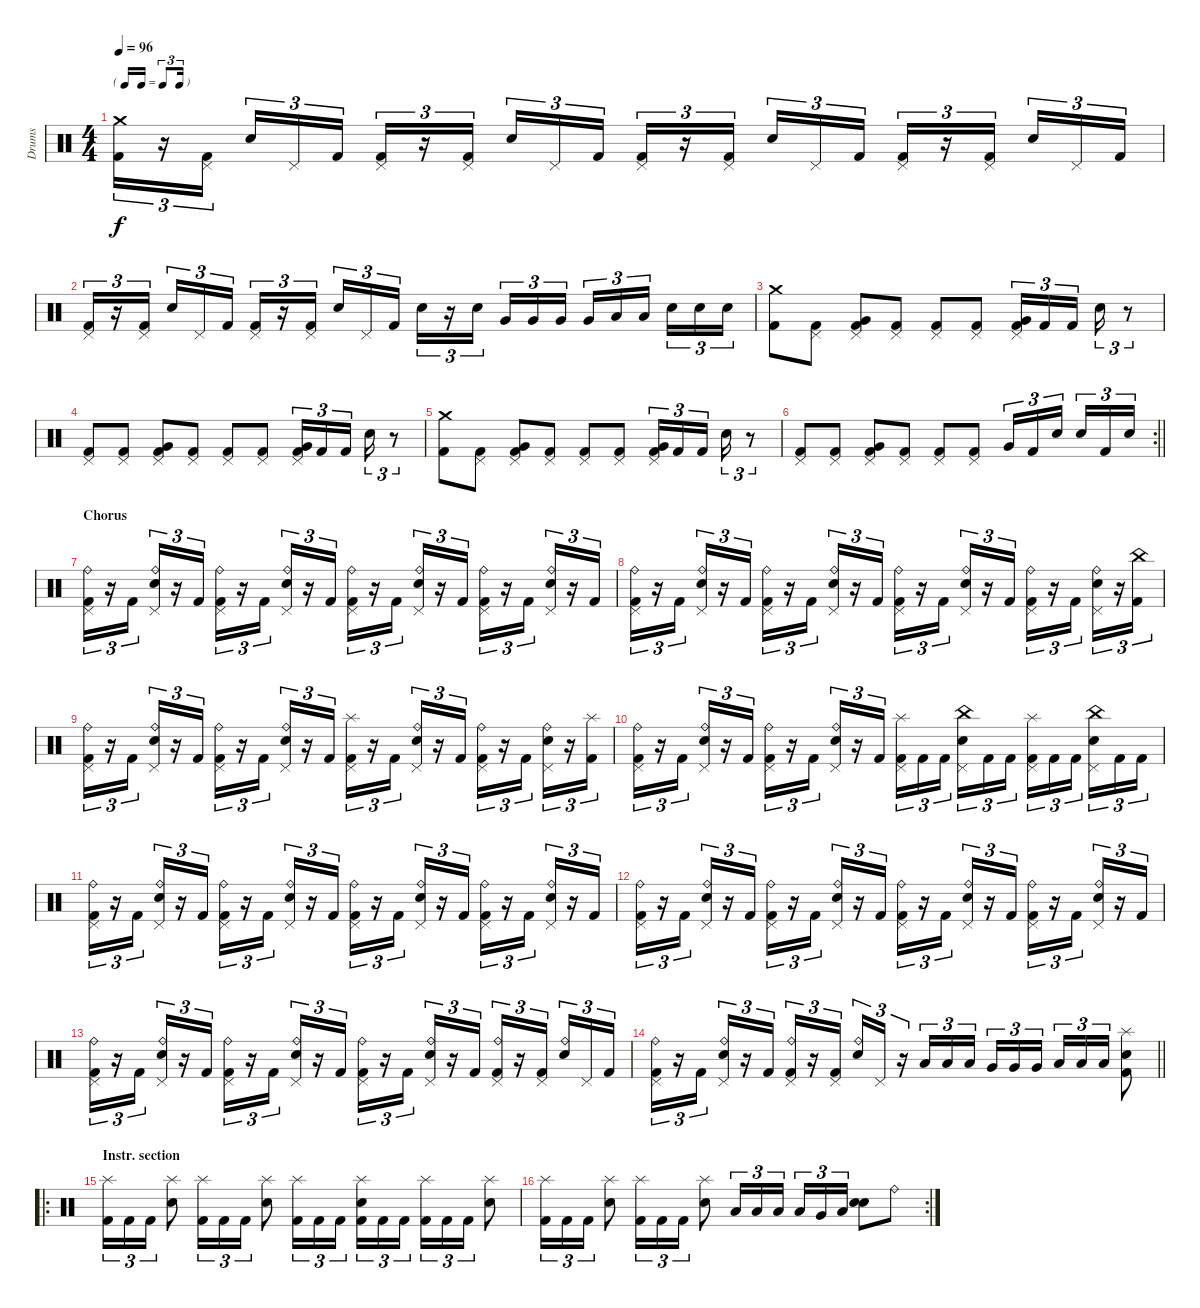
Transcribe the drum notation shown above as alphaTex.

\track ("Drums" "Drums") {instrument percussion}
\staff {score}
\articulation defaults
\ts (4 4)
\tf triplet16th
\tempo 96
\clef neutral
\ks c
("Crash medium (hit)" "Kick (hit) 2").16{tu (3 2) dy f} r.16{tu (3 2)} ("Pedal Hi-Hat (hit)" "Kick (hit) 2").16{tu (3 2) beam splitsecondary} "Snare (hit) 2".16{tu (3 2)} "Pedal Hi-Hat (hit)".16{tu (3 2)} "Kick (hit) 2".16{tu (3 2)} ("Pedal Hi-Hat (hit)" "Kick (hit) 2").16{tu (3 2)} r.16{tu (3 2)} ("Pedal Hi-Hat (hit)" "Kick (hit) 2").16{tu (3 2) beam splitsecondary} "Snare (hit) 2".16{tu (3 2)} "Pedal Hi-Hat (hit)".16{tu (3 2)} "Kick (hit) 2".16{tu (3 2)} ("Pedal Hi-Hat (hit)" "Kick (hit) 2").16{tu (3 2)} r.16{tu (3 2)} ("Pedal Hi-Hat (hit)" "Kick (hit) 2").16{tu (3 2) beam splitsecondary} "Snare (hit) 2".16{tu (3 2)} "Pedal Hi-Hat (hit)".16{tu (3 2)} "Kick (hit) 2".16{tu (3 2)} ("Pedal Hi-Hat (hit)" "Kick (hit) 2").16{tu (3 2)} r.16{tu (3 2)} ("Pedal Hi-Hat (hit)" "Kick (hit) 2").16{tu (3 2) beam splitsecondary} "Snare (hit) 2".16{tu (3 2)} "Pedal Hi-Hat (hit)".16{tu (3 2)} "Kick (hit) 2".16{tu (3 2)} |
("Pedal Hi-Hat (hit)" "Kick (hit) 2").16{tu (3 2)} r.16{tu (3 2)} ("Pedal Hi-Hat (hit)" "Kick (hit) 2").16{tu (3 2) beam splitsecondary} "Snare (hit) 2".16{tu (3 2)} "Pedal Hi-Hat (hit)".16{tu (3 2)} "Kick (hit) 2".16{tu (3 2)} ("Pedal Hi-Hat (hit)" "Kick (hit) 2").16{tu (3 2)} r.16{tu (3 2)} ("Pedal Hi-Hat (hit)" "Kick (hit) 2").16{tu (3 2) beam splitsecondary} "Snare (hit) 2".16{tu (3 2)} "Pedal Hi-Hat (hit)".16{tu (3 2)} "Kick (hit) 2".16{tu (3 2)} "Snare (hit) 2".16{tu (3 2)} r.16{tu (3 2)} "Snare (hit) 2".16{tu (3 2) beam splitsecondary} "Very Low Tom (hit)".16{tu (3 2)} "Very Low Tom (hit)".16{tu (3 2)} "Very Low Tom (hit)".16{tu (3 2)} "Very Low Tom (hit)".16{tu (3 2)} "Low Floor Tom (hit)".16{tu (3 2)} "Low Floor Tom (hit)".16{tu (3 2) beam splitsecondary} "Snare (hit) 2".16{tu (3 2)} "Snare (hit) 2".16{tu (3 2)} "Snare (hit) 2".16{tu (3 2)} |
("Crash medium (hit)" "Kick (hit) 2").8 ("Pedal Hi-Hat (hit)" "Kick (hit) 2").8 ("Pedal Hi-Hat (hit)" "Very Low Tom (hit)" "Kick (hit) 2").8 ("Pedal Hi-Hat (hit)" "Kick (hit) 2").8 ("Pedal Hi-Hat (hit)" "Kick (hit) 2").8 ("Pedal Hi-Hat (hit)" "Kick (hit) 2").8 ("Pedal Hi-Hat (hit)" "Very Low Tom (hit)" "Kick (hit) 2").16{tu (3 2)} "Kick (hit) 2".16{tu (3 2)} "Kick (hit) 2".16{tu (3 2) beam splitsecondary} "Snare (hit) 2".16{tu (3 2)} r.8{tu (3 2)} |
("Pedal Hi-Hat (hit)" "Kick (hit) 2").8 ("Pedal Hi-Hat (hit)" "Kick (hit) 2").8 ("Pedal Hi-Hat (hit)" "Very Low Tom (hit)" "Kick (hit) 2").8 ("Pedal Hi-Hat (hit)" "Kick (hit) 2").8 ("Pedal Hi-Hat (hit)" "Kick (hit) 2").8 ("Pedal Hi-Hat (hit)" "Kick (hit) 2").8 ("Pedal Hi-Hat (hit)" "Very Low Tom (hit)" "Kick (hit) 2").16{tu (3 2)} "Kick (hit) 2".16{tu (3 2)} "Kick (hit) 2".16{tu (3 2) beam splitsecondary} "Snare (hit) 2".16{tu (3 2)} r.8{tu (3 2)} |
("Crash medium (hit)" "Kick (hit) 2").8 ("Pedal Hi-Hat (hit)" "Kick (hit) 2").8 ("Pedal Hi-Hat (hit)" "Very Low Tom (hit)" "Kick (hit) 2").8 ("Pedal Hi-Hat (hit)" "Kick (hit) 2").8 ("Pedal Hi-Hat (hit)" "Kick (hit) 2").8 ("Pedal Hi-Hat (hit)" "Kick (hit) 2").8 ("Pedal Hi-Hat (hit)" "Very Low Tom (hit)" "Kick (hit) 2").16{tu (3 2)} "Kick (hit) 2".16{tu (3 2)} "Kick (hit) 2".16{tu (3 2) beam splitsecondary} "Snare (hit) 2".16{tu (3 2)} r.8{tu (3 2)} |
\rc 2
\barLineRight lightlight
("Pedal Hi-Hat (hit)" "Kick (hit) 2").8 ("Pedal Hi-Hat (hit)" "Kick (hit) 2").8 ("Pedal Hi-Hat (hit)" "Very Low Tom (hit)" "Kick (hit) 2").8 ("Pedal Hi-Hat (hit)" "Kick (hit) 2").8 ("Pedal Hi-Hat (hit)" "Kick (hit) 2").8 ("Pedal Hi-Hat (hit)" "Kick (hit) 2").8 "Very Low Tom (hit)".16{tu (3 2)} "Kick (hit) 2".16{tu (3 2)} "Snare (hit) 2".16{tu (3 2) beam splitsecondary} "Snare (hit) 2".16{tu (3 2)} "Kick (hit) 2".16{tu (3 2)} "Snare (hit) 2".16{tu (3 2)} |
\section ("" "Chorus")
("Ride (bell)" "Pedal Hi-Hat (hit)" "Kick (hit) 2").16{tu (3 2)} r.16{tu (3 2)} "Kick (hit) 2".16{tu (3 2)} ("Ride (bell)" "Pedal Hi-Hat (hit)" "Snare (hit) 2").16{tu (3 2)} r.16{tu (3 2)} "Kick (hit) 2".16{tu (3 2)} ("Ride (bell)" "Pedal Hi-Hat (hit)" "Kick (hit) 2").16{tu (3 2)} r.16{tu (3 2)} "Kick (hit) 2".16{tu (3 2)} ("Ride (bell)" "Pedal Hi-Hat (hit)" "Snare (hit) 2").16{tu (3 2)} r.16{tu (3 2)} "Kick (hit) 2".16{tu (3 2)} ("Ride (bell)" "Pedal Hi-Hat (hit)" "Kick (hit) 2").16{tu (3 2)} r.16{tu (3 2)} "Kick (hit) 2".16{tu (3 2)} ("Ride (bell)" "Pedal Hi-Hat (hit)" "Snare (hit) 2").16{tu (3 2)} r.16{tu (3 2)} "Kick (hit) 2".16{tu (3 2)} ("Ride (bell)" "Pedal Hi-Hat (hit)" "Kick (hit) 2").16{tu (3 2)} r.16{tu (3 2)} "Kick (hit) 2".16{tu (3 2)} ("Ride (bell)" "Pedal Hi-Hat (hit)" "Snare (hit) 2").16{tu (3 2)} r.16{tu (3 2)} "Kick (hit) 2".16{tu (3 2)} |
("Ride (bell)" "Pedal Hi-Hat (hit)" "Kick (hit) 2").16{tu (3 2)} r.16{tu (3 2)} "Kick (hit) 2".16{tu (3 2)} ("Ride (bell)" "Pedal Hi-Hat (hit)" "Snare (hit) 2").16{tu (3 2)} r.16{tu (3 2)} "Kick (hit) 2".16{tu (3 2)} ("Ride (bell)" "Pedal Hi-Hat (hit)" "Kick (hit) 2").16{tu (3 2)} r.16{tu (3 2)} "Kick (hit) 2".16{tu (3 2)} ("Ride (bell)" "Pedal Hi-Hat (hit)" "Snare (hit) 2").16{tu (3 2)} r.16{tu (3 2)} "Kick (hit) 2".16{tu (3 2)} ("Ride (bell)" "Pedal Hi-Hat (hit)" "Kick (hit) 2").16{tu (3 2)} r.16{tu (3 2)} "Kick (hit) 2".16{tu (3 2)} ("Ride (bell)" "Pedal Hi-Hat (hit)" "Snare (hit) 2").16{tu (3 2)} r.16{tu (3 2)} "Kick (hit) 2".16{tu (3 2)} ("Ride (bell)" "Pedal Hi-Hat (hit)" "Kick (hit) 2").16{tu (3 2)} r.16{tu (3 2)} "Kick (hit) 2".16{tu (3 2)} ("Ride (bell)" "Pedal Hi-Hat (hit)" "Snare (hit) 2").16{tu (3 2)} r.16{tu (3 2)} ("China (hit)" "Kick (hit) 2").16{tu (3 2)} |
("Ride (bell)" "Pedal Hi-Hat (hit)" "Kick (hit) 2").16{tu (3 2)} r.16{tu (3 2)} "Kick (hit) 2".16{tu (3 2)} ("Ride (bell)" "Pedal Hi-Hat (hit)" "Snare (hit) 2").16{tu (3 2)} r.16{tu (3 2)} "Kick (hit) 2".16{tu (3 2)} ("Ride (bell)" "Pedal Hi-Hat (hit)" "Kick (hit) 2").16{tu (3 2)} r.16{tu (3 2)} "Kick (hit) 2".16{tu (3 2)} ("Ride (bell)" "Pedal Hi-Hat (hit)" "Snare (hit) 2").16{tu (3 2)} r.16{tu (3 2)} "Kick (hit) 2".16{tu (3 2)} ("Splash (hit)" "Pedal Hi-Hat (hit)" "Kick (hit) 2").16{tu (3 2)} r.16{tu (3 2)} "Kick (hit) 2".16{tu (3 2)} ("Ride (bell)" "Pedal Hi-Hat (hit)" "Snare (hit) 2").16{tu (3 2)} r.16{tu (3 2)} "Kick (hit) 2".16{tu (3 2)} ("Ride (bell)" "Pedal Hi-Hat (hit)" "Kick (hit) 2").16{tu (3 2)} r.16{tu (3 2)} "Kick (hit) 2".16{tu (3 2)} ("Ride (bell)" "Pedal Hi-Hat (hit)" "Snare (hit) 2").16{tu (3 2)} r.16{tu (3 2)} ("Splash (hit)" "Kick (hit) 2").16{tu (3 2)} |
("Ride (bell)" "Pedal Hi-Hat (hit)" "Kick (hit) 2").16{tu (3 2)} r.16{tu (3 2)} "Kick (hit) 2".16{tu (3 2)} ("Ride (bell)" "Pedal Hi-Hat (hit)" "Snare (hit) 2").16{tu (3 2)} r.16{tu (3 2)} "Kick (hit) 2".16{tu (3 2)} ("Ride (bell)" "Pedal Hi-Hat (hit)" "Kick (hit) 2").16{tu (3 2)} r.16{tu (3 2)} "Kick (hit) 2".16{tu (3 2)} ("Ride (bell)" "Pedal Hi-Hat (hit)" "Snare (hit) 2").16{tu (3 2)} r.16{tu (3 2)} "Kick (hit) 2".16{tu (3 2)} ("Splash (hit)" "Pedal Hi-Hat (hit)" "Kick (hit) 2").16{tu (3 2)} "Kick (hit) 2".16{tu (3 2)} "Kick (hit) 2".16{tu (3 2) beam splitsecondary} ("China (hit)" "Pedal Hi-Hat (hit)" "Snare (hit) 2").16{tu (3 2)} "Kick (hit) 2".16{tu (3 2)} "Kick (hit) 2".16{tu (3 2)} ("Splash (hit)" "Pedal Hi-Hat (hit)" "Kick (hit) 2").16{tu (3 2)} "Kick (hit) 2".16{tu (3 2)} "Kick (hit) 2".16{tu (3 2) beam splitsecondary} ("China (hit)" "Pedal Hi-Hat (hit)" "Snare (hit) 2").16{tu (3 2)} "Kick (hit) 2".16{tu (3 2)} "Kick (hit) 2".16{tu (3 2)} |
("Ride (bell)" "Pedal Hi-Hat (hit)" "Kick (hit) 2").16{tu (3 2)} r.16{tu (3 2)} "Kick (hit) 2".16{tu (3 2)} ("Ride (bell)" "Pedal Hi-Hat (hit)" "Snare (hit) 2").16{tu (3 2)} r.16{tu (3 2)} "Kick (hit) 2".16{tu (3 2)} ("Ride (bell)" "Pedal Hi-Hat (hit)" "Kick (hit) 2").16{tu (3 2)} r.16{tu (3 2)} "Kick (hit) 2".16{tu (3 2)} ("Ride (bell)" "Pedal Hi-Hat (hit)" "Snare (hit) 2").16{tu (3 2)} r.16{tu (3 2)} "Kick (hit) 2".16{tu (3 2)} ("Ride (bell)" "Pedal Hi-Hat (hit)" "Kick (hit) 2").16{tu (3 2)} r.16{tu (3 2)} "Kick (hit) 2".16{tu (3 2)} ("Ride (bell)" "Pedal Hi-Hat (hit)" "Snare (hit) 2").16{tu (3 2)} r.16{tu (3 2)} "Kick (hit) 2".16{tu (3 2)} ("Ride (bell)" "Pedal Hi-Hat (hit)" "Kick (hit) 2").16{tu (3 2)} r.16{tu (3 2)} "Kick (hit) 2".16{tu (3 2)} ("Ride (bell)" "Pedal Hi-Hat (hit)" "Snare (hit) 2").16{tu (3 2)} r.16{tu (3 2)} "Kick (hit) 2".16{tu (3 2)} |
("Ride (bell)" "Pedal Hi-Hat (hit)" "Kick (hit) 2").16{tu (3 2)} r.16{tu (3 2)} "Kick (hit) 2".16{tu (3 2)} ("Ride (bell)" "Pedal Hi-Hat (hit)" "Snare (hit) 2").16{tu (3 2)} r.16{tu (3 2)} "Kick (hit) 2".16{tu (3 2)} ("Ride (bell)" "Pedal Hi-Hat (hit)" "Kick (hit) 2").16{tu (3 2)} r.16{tu (3 2)} "Kick (hit) 2".16{tu (3 2)} ("Ride (bell)" "Pedal Hi-Hat (hit)" "Snare (hit) 2").16{tu (3 2)} r.16{tu (3 2)} "Kick (hit) 2".16{tu (3 2)} ("Ride (bell)" "Pedal Hi-Hat (hit)" "Kick (hit) 2").16{tu (3 2)} r.16{tu (3 2)} "Kick (hit) 2".16{tu (3 2)} ("Ride (bell)" "Pedal Hi-Hat (hit)" "Snare (hit) 2").16{tu (3 2)} r.16{tu (3 2)} "Kick (hit) 2".16{tu (3 2)} ("Ride (bell)" "Pedal Hi-Hat (hit)" "Kick (hit) 2").16{tu (3 2)} r.16{tu (3 2)} "Kick (hit) 2".16{tu (3 2)} ("Ride (bell)" "Pedal Hi-Hat (hit)" "Snare (hit) 2").16{tu (3 2)} r.16{tu (3 2)} "Kick (hit) 2".16{tu (3 2)} |
("Ride (bell)" "Pedal Hi-Hat (hit)" "Kick (hit) 2").16{tu (3 2)} r.16{tu (3 2)} "Kick (hit) 2".16{tu (3 2)} ("Ride (bell)" "Pedal Hi-Hat (hit)" "Snare (hit) 2").16{tu (3 2)} r.16{tu (3 2)} "Kick (hit) 2".16{tu (3 2)} ("Ride (bell)" "Pedal Hi-Hat (hit)" "Kick (hit) 2").16{tu (3 2)} r.16{tu (3 2)} "Kick (hit) 2".16{tu (3 2)} ("Ride (bell)" "Pedal Hi-Hat (hit)" "Snare (hit) 2").16{tu (3 2)} r.16{tu (3 2)} "Kick (hit) 2".16{tu (3 2)} ("Ride (bell)" "Pedal Hi-Hat (hit)" "Kick (hit) 2").16{tu (3 2)} r.16{tu (3 2)} "Kick (hit) 2".16{tu (3 2)} ("Ride (bell)" "Pedal Hi-Hat (hit)" "Snare (hit) 2").16{tu (3 2)} r.16{tu (3 2)} "Kick (hit) 2".16{tu (3 2)} ("Ride (bell)" "Pedal Hi-Hat (hit)" "Kick (hit) 2").16{tu (3 2)} r.16{tu (3 2)} ("Pedal Hi-Hat (hit)" "Kick (hit) 2").16{tu (3 2) beam splitsecondary} ("Ride (bell)" "Snare (hit) 2").16{tu (3 2)} "Pedal Hi-Hat (hit)".16{tu (3 2)} "Kick (hit) 2".16{tu (3 2)} |
\barLineRight lightlight
("Ride (bell)" "Pedal Hi-Hat (hit)" "Kick (hit) 2").16{tu (3 2)} r.16{tu (3 2)} "Kick (hit) 2".16{tu (3 2)} ("Ride (bell)" "Pedal Hi-Hat (hit)" "Snare (hit) 2").16{tu (3 2)} r.16{tu (3 2)} "Kick (hit) 2".16{tu (3 2)} ("Ride (bell)" "Pedal Hi-Hat (hit)" "Kick (hit) 2").16{tu (3 2)} r.16{tu (3 2)} ("Pedal Hi-Hat (hit)" "Kick (hit) 2").16{tu (3 2) beam splitsecondary} ("Ride (bell)" "Snare (hit) 2").16{tu (3 2)} "Pedal Hi-Hat (hit)".16{tu (3 2)} r.16{tu (3 2)} "Low Tom (hit)".16{tu (3 2)} "Low Tom (hit)".16{tu (3 2)} "Low Tom (hit)".16{tu (3 2) beam splitsecondary} "Very Low Tom (hit)".16{tu (3 2)} "Very Low Tom (hit)".16{tu (3 2)} "Very Low Tom (hit)".16{tu (3 2)} "Low Floor Tom (hit)".16{tu (3 2)} "Low Floor Tom (hit)".16{tu (3 2)} "Low Floor Tom (hit)".16{tu (3 2)} ("Splash (hit)" "Snare (hit) 2" "Kick (hit) 2").8 |
\ro
\section ("" "Instr. section")
("Splash (hit)" "Kick (hit) 2").16{tu (3 2)} "Kick (hit) 2".16{tu (3 2)} "Kick (hit) 2".16{tu (3 2)} ("Splash (hit)" "Snare (hit) 2").8 ("Splash (hit)" "Kick (hit) 2").16{tu (3 2)} "Kick (hit) 2".16{tu (3 2)} "Kick (hit) 2".16{tu (3 2)} ("Splash (hit)" "Snare (hit) 2").8 ("Splash (hit)" "Kick (hit) 2").16{tu (3 2)} "Kick (hit) 2".16{tu (3 2)} "Kick (hit) 2".16{tu (3 2) beam splitsecondary} ("Splash (hit)" "Snare (hit) 2" "Kick (hit) 2").16{tu (3 2)} "Kick (hit) 2".16{tu (3 2)} "Kick (hit) 2".16{tu (3 2)} ("Splash (hit)" "Kick (hit) 2").16{tu (3 2)} "Kick (hit) 2".16{tu (3 2)} "Kick (hit) 2".16{tu (3 2)} ("Splash (hit)" "Snare (hit) 2").8 |
\rc 2
("Splash (hit)" "Kick (hit) 2").16{tu (3 2)} "Kick (hit) 2".16{tu (3 2)} "Kick (hit) 2".16{tu (3 2)} ("Splash (hit)" "Snare (hit) 2").8 ("Splash (hit)" "Kick (hit) 2").16{tu (3 2)} "Kick (hit) 2".16{tu (3 2)} "Kick (hit) 2".16{tu (3 2)} ("Splash (hit)" "Snare (hit) 2").8 "Low Tom (hit)".16{tu (3 2)} "Low Tom (hit)".16{tu (3 2)} "Low Floor Tom (hit)".16{tu (3 2) beam splitsecondary} "Low Tom (hit)".16{tu (3 2)} "Very Low Tom (hit)".16{tu (3 2)} "Low Floor Tom (hit)".16{tu (3 2)} ("Electric Snare (hit)" "Snare (hit) 2").8 "Ride (bell)".8
